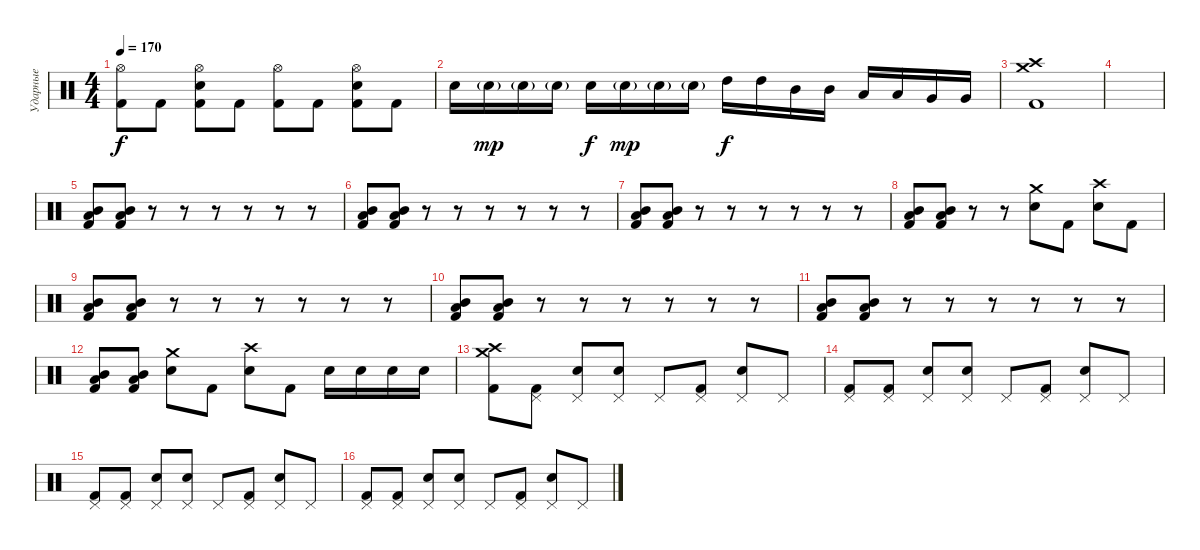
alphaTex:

\track ("Ударные" "Ударные") {instrument percussion}
\staff {score}
\articulation defaults
\ts (4 4)
\tempo 170
\clef neutral
\ks c
("Hi-Hat (open)" "Kick (hit) 2").8{dy f} "Kick (hit) 2".8 ("Hi-Hat (open)" "Electric Snare (hit)" "Kick (hit) 2").8 "Kick (hit) 2".8 ("Hi-Hat (open)" "Kick (hit) 2").8 "Kick (hit) 2".8 ("Hi-Hat (open)" "Electric Snare (hit)" "Kick (hit) 2").8 "Kick (hit) 2".8 |
"Electric Snare (hit)".16 "Electric Snare (hit)"{g}.16{dy mp} "Electric Snare (hit)"{g}.16 "Electric Snare (hit)"{g}.16 "Electric Snare (hit)".16{dy f} "Electric Snare (hit)"{g}.16{dy mp} "Electric Snare (hit)"{g}.16 "Electric Snare (hit)"{g}.16 "High Tom (hit)".16{dy f} "High Tom (hit)".16 "Mid Tom (hit)".16 "Mid Tom (hit)".16 "Low Tom (hit)".16 "Low Tom (hit)".16 "Very Low Tom (hit)".16 "Very Low Tom (hit)".16 |
("Crash medium (hit)" "Crash high (hit)" "Kick (hit) 2").1 |
|
("Mid Tom (hit)" "Low Tom (hit)" "Kick (hit) 2").8 ("Mid Tom (hit)" "Low Tom (hit)" "Kick (hit) 2").8 r.8 r.8 r.8 r.8 r.8 r.8 |
("Mid Tom (hit)" "Low Tom (hit)" "Kick (hit) 2").8 ("Mid Tom (hit)" "Low Tom (hit)" "Kick (hit) 2").8 r.8 r.8 r.8 r.8 r.8 r.8 |
("Mid Tom (hit)" "Low Tom (hit)" "Kick (hit) 2").8 ("Mid Tom (hit)" "Low Tom (hit)" "Kick (hit) 2").8 r.8 r.8 r.8 r.8 r.8 r.8 |
("Mid Tom (hit)" "Low Tom (hit)" "Kick (hit) 2").8 ("Mid Tom (hit)" "Low Tom (hit)" "Kick (hit) 2").8 r.8 r.8 ("Crash medium (hit)" "Electric Snare (hit)").8 "Kick (hit) 2".8 ("Crash high (hit)" "Electric Snare (hit)").8 "Kick (hit) 2".8 |
("Mid Tom (hit)" "Low Tom (hit)" "Kick (hit) 2").8 ("Mid Tom (hit)" "Low Tom (hit)" "Kick (hit) 2").8 r.8 r.8 r.8 r.8 r.8 r.8 |
("Mid Tom (hit)" "Low Tom (hit)" "Kick (hit) 2").8 ("Mid Tom (hit)" "Low Tom (hit)" "Kick (hit) 2").8 r.8 r.8 r.8 r.8 r.8 r.8 |
("Mid Tom (hit)" "Low Tom (hit)" "Kick (hit) 2").8 ("Mid Tom (hit)" "Low Tom (hit)" "Kick (hit) 2").8 r.8 r.8 r.8 r.8 r.8 r.8 |
("Mid Tom (hit)" "Low Tom (hit)" "Kick (hit) 2").8 ("Mid Tom (hit)" "Low Tom (hit)" "Kick (hit) 2").8 ("Crash medium (hit)" "Electric Snare (hit)").8 "Kick (hit) 2".8 ("Crash high (hit)" "Electric Snare (hit)").8 "Kick (hit) 2".8 "Electric Snare (hit)".16 "Electric Snare (hit)".16 "Electric Snare (hit)".16 "Electric Snare (hit)".16 |
("Crash medium (hit)" "Crash high (hit)" "Kick (hit) 2").8 ("Pedal Hi-Hat (hit)" "Kick (hit) 2").8 ("Pedal Hi-Hat (hit)" "Electric Snare (hit)").8 ("Pedal Hi-Hat (hit)" "Electric Snare (hit)").8 "Pedal Hi-Hat (hit)".8 ("Pedal Hi-Hat (hit)" "Kick (hit) 2").8 ("Pedal Hi-Hat (hit)" "Electric Snare (hit)").8 "Pedal Hi-Hat (hit)".8 |
("Pedal Hi-Hat (hit)" "Kick (hit) 2").8 ("Pedal Hi-Hat (hit)" "Kick (hit) 2").8 ("Pedal Hi-Hat (hit)" "Electric Snare (hit)").8 ("Pedal Hi-Hat (hit)" "Electric Snare (hit)").8 "Pedal Hi-Hat (hit)".8 ("Pedal Hi-Hat (hit)" "Kick (hit) 2").8 ("Pedal Hi-Hat (hit)" "Electric Snare (hit)").8 "Pedal Hi-Hat (hit)".8 |
("Pedal Hi-Hat (hit)" "Kick (hit) 2").8 ("Pedal Hi-Hat (hit)" "Kick (hit) 2").8 ("Pedal Hi-Hat (hit)" "Electric Snare (hit)").8 ("Pedal Hi-Hat (hit)" "Electric Snare (hit)").8 "Pedal Hi-Hat (hit)".8 ("Pedal Hi-Hat (hit)" "Kick (hit) 2").8 ("Pedal Hi-Hat (hit)" "Electric Snare (hit)").8 "Pedal Hi-Hat (hit)".8 |
("Pedal Hi-Hat (hit)" "Kick (hit) 2").8 ("Pedal Hi-Hat (hit)" "Kick (hit) 2").8 ("Pedal Hi-Hat (hit)" "Electric Snare (hit)").8 ("Pedal Hi-Hat (hit)" "Electric Snare (hit)").8 "Pedal Hi-Hat (hit)".8 ("Pedal Hi-Hat (hit)" "Kick (hit) 2").8 ("Pedal Hi-Hat (hit)" "Electric Snare (hit)").8 "Pedal Hi-Hat (hit)".8
